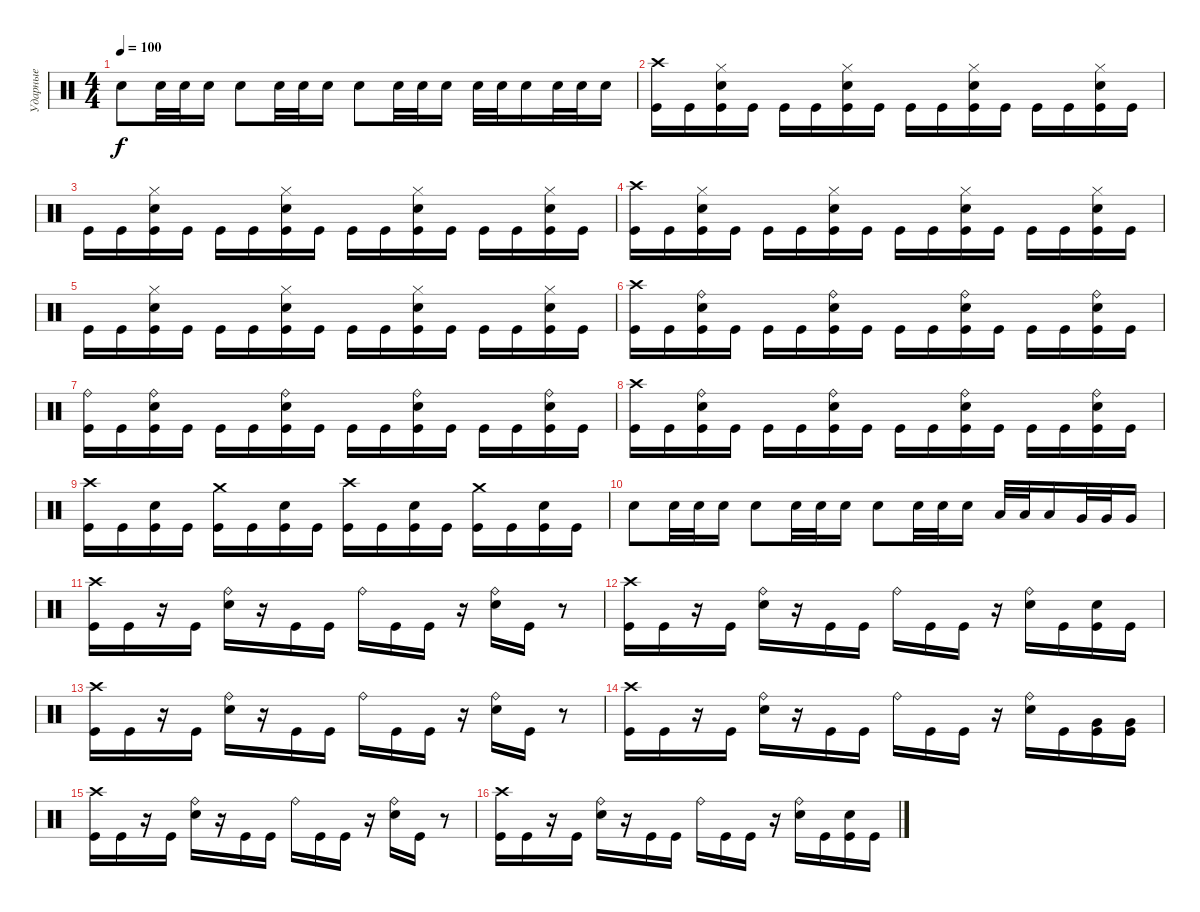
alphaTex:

\track ("Ударные" "Ударные") {instrument percussion}
\staff {score}
\articulation defaults
\ts (4 4)
\tempo 100
\clef neutral
\ks c "Electric Snare (hit)".8{dy f} "Electric Snare (hit)".32 "Electric Snare (hit)".32 "Electric Snare (hit)".16 "Electric Snare (hit)".8 "Electric Snare (hit)".32 "Electric Snare (hit)".32 "Electric Snare (hit)".16 "Electric Snare (hit)".8 "Electric Snare (hit)".32 "Electric Snare (hit)".32 "Electric Snare (hit)".16 "Electric Snare (hit)".32 "Electric Snare (hit)".32 "Electric Snare (hit)".16 "Electric Snare (hit)".32 "Electric Snare (hit)".32 "Electric Snare (hit)".16
|
("Crash high (hit)" "Kick (hit)").16 "Kick (hit)".16 ("Hi-Hat (closed)" "Electric Snare (hit)" "Kick (hit)").16 "Kick (hit)".16 "Kick (hit)".16 "Kick (hit)".16 ("Hi-Hat (closed)" "Electric Snare (hit)" "Kick (hit)").16 "Kick (hit)".16 "Kick (hit)".16 "Kick (hit)".16 ("Hi-Hat (closed)" "Electric Snare (hit)" "Kick (hit)").16 "Kick (hit)".16 "Kick (hit)".16 "Kick (hit)".16 ("Hi-Hat (closed)" "Electric Snare (hit)" "Kick (hit)").16 "Kick (hit)".16 |
"Kick (hit)".16 "Kick (hit)".16 ("Hi-Hat (closed)" "Electric Snare (hit)" "Kick (hit)").16 "Kick (hit)".16 "Kick (hit)".16 "Kick (hit)".16 ("Hi-Hat (closed)" "Electric Snare (hit)" "Kick (hit)").16 "Kick (hit)".16 "Kick (hit)".16 "Kick (hit)".16 ("Hi-Hat (closed)" "Electric Snare (hit)" "Kick (hit)").16 "Kick (hit)".16 "Kick (hit)".16 "Kick (hit)".16 ("Hi-Hat (closed)" "Electric Snare (hit)" "Kick (hit)").16 "Kick (hit)".16 |
("Crash high (hit)" "Kick (hit)").16 "Kick (hit)".16 ("Hi-Hat (closed)" "Electric Snare (hit)" "Kick (hit)").16 "Kick (hit)".16 "Kick (hit)".16 "Kick (hit)".16 ("Hi-Hat (closed)" "Electric Snare (hit)" "Kick (hit)").16 "Kick (hit)".16 "Kick (hit)".16 "Kick (hit)".16 ("Hi-Hat (closed)" "Electric Snare (hit)" "Kick (hit)").16 "Kick (hit)".16 "Kick (hit)".16 "Kick (hit)".16 ("Hi-Hat (closed)" "Electric Snare (hit)" "Kick (hit)").16 "Kick (hit)".16 |
"Kick (hit)".16 "Kick (hit)".16 ("Hi-Hat (closed)" "Electric Snare (hit)" "Kick (hit)").16 "Kick (hit)".16 "Kick (hit)".16 "Kick (hit)".16 ("Hi-Hat (closed)" "Electric Snare (hit)" "Kick (hit)").16 "Kick (hit)".16 "Kick (hit)".16 "Kick (hit)".16 ("Hi-Hat (closed)" "Electric Snare (hit)" "Kick (hit)").16 "Kick (hit)".16 "Kick (hit)".16 "Kick (hit)".16 ("Hi-Hat (closed)" "Electric Snare (hit)" "Kick (hit)").16 "Kick (hit)".16 |
("Crash high (hit)" "Kick (hit)").16 "Kick (hit)".16 ("Ride (bell)" "Electric Snare (hit)" "Kick (hit)").16 "Kick (hit)".16 "Kick (hit)".16 "Kick (hit)".16 ("Ride (bell)" "Electric Snare (hit)" "Kick (hit)").16 "Kick (hit)".16 "Kick (hit)".16 "Kick (hit)".16 ("Ride (bell)" "Electric Snare (hit)" "Kick (hit)").16 "Kick (hit)".16 "Kick (hit)".16 "Kick (hit)".16 ("Ride (bell)" "Electric Snare (hit)" "Kick (hit)").16 "Kick (hit)".16 |
("Ride (bell)" "Kick (hit)").16 "Kick (hit)".16 ("Ride (bell)" "Electric Snare (hit)" "Kick (hit)").16 "Kick (hit)".16 "Kick (hit)".16 "Kick (hit)".16 ("Ride (bell)" "Electric Snare (hit)" "Kick (hit)").16 "Kick (hit)".16 "Kick (hit)".16 "Kick (hit)".16 ("Ride (bell)" "Electric Snare (hit)" "Kick (hit)").16 "Kick (hit)".16 "Kick (hit)".16 "Kick (hit)".16 ("Ride (bell)" "Electric Snare (hit)" "Kick (hit)").16 "Kick (hit)".16 |
("Crash high (hit)" "Kick (hit)").16 "Kick (hit)".16 ("Ride (bell)" "Electric Snare (hit)" "Kick (hit)").16 "Kick (hit)".16 "Kick (hit)".16 "Kick (hit)".16 ("Ride (bell)" "Electric Snare (hit)" "Kick (hit)").16 "Kick (hit)".16 "Kick (hit)".16 "Kick (hit)".16 ("Ride (bell)" "Electric Snare (hit)" "Kick (hit)").16 "Kick (hit)".16 "Kick (hit)".16 "Kick (hit)".16 ("Ride (bell)" "Electric Snare (hit)" "Kick (hit)").16 "Kick (hit)".16 |
("Crash high (hit)" "Kick (hit)").16 "Kick (hit)".16 ("Electric Snare (hit)" "Kick (hit)").16 "Kick (hit)".16 ("Crash medium (hit)" "Kick (hit)").16 "Kick (hit)".16 ("Electric Snare (hit)" "Kick (hit)").16 "Kick (hit)".16 ("Crash high (hit)" "Kick (hit)").16 "Kick (hit)".16 ("Electric Snare (hit)" "Kick (hit)").16 "Kick (hit)".16 ("Crash medium (hit)" "Kick (hit)").16 "Kick (hit)".16 ("Electric Snare (hit)" "Kick (hit)").16 "Kick (hit)".16 |
"Electric Snare (hit)".8 "Electric Snare (hit)".32 "Electric Snare (hit)".32 "Electric Snare (hit)".16 "Electric Snare (hit)".8 "Electric Snare (hit)".32 "Electric Snare (hit)".32 "Electric Snare (hit)".16 "Electric Snare (hit)".8 "Electric Snare (hit)".32 "Electric Snare (hit)".32 "Electric Snare (hit)".16 "Low Tom (hit)".32 "Low Tom (hit)".32 "Low Tom (hit)".16 "Very Low Tom (hit)".32 "Very Low Tom (hit)".32 "Very Low Tom (hit)".16 |
("Crash high (hit)" "Kick (hit)").16 "Kick (hit)".16 r.16 "Kick (hit)".16 ("Ride (bell)" "Electric Snare (hit)").16 r.16 "Kick (hit)".16 "Kick (hit)".16 "Ride (bell)".16 "Kick (hit)".16 "Kick (hit)".16 r.16 ("Ride (bell)" "Electric Snare (hit)").16 "Kick (hit)".16 r.8 |
("Crash high (hit)" "Kick (hit)").16 "Kick (hit)".16 r.16 "Kick (hit)".16 ("Ride (bell)" "Electric Snare (hit)").16 r.16 "Kick (hit)".16 "Kick (hit)".16 "Ride (bell)".16 "Kick (hit)".16 "Kick (hit)".16 r.16 ("Ride (bell)" "Electric Snare (hit)").16 "Kick (hit)".16 ("Electric Snare (hit)" "Kick (hit)").16 "Kick (hit)".16 |
("Crash high (hit)" "Kick (hit)").16 "Kick (hit)".16 r.16 "Kick (hit)".16 ("Ride (bell)" "Electric Snare (hit)").16 r.16 "Kick (hit)".16 "Kick (hit)".16 "Ride (bell)".16 "Kick (hit)".16 "Kick (hit)".16 r.16 ("Ride (bell)" "Electric Snare (hit)").16 "Kick (hit)".16 r.8 |
("Crash high (hit)" "Kick (hit)").16 "Kick (hit)".16 r.16 "Kick (hit)".16 ("Ride (bell)" "Electric Snare (hit)").16 r.16 "Kick (hit)".16 "Kick (hit)".16 "Ride (bell)".16 "Kick (hit)".16 "Kick (hit)".16 r.16 ("Ride (bell)" "Electric Snare (hit)").16 "Kick (hit)".16 ("Very Low Tom (hit)" "Kick (hit)").16 ("Very Low Tom (hit)" "Kick (hit)").16 |
("Crash high (hit)" "Kick (hit)").16 "Kick (hit)".16 r.16 "Kick (hit)".16 ("Ride (bell)" "Electric Snare (hit)").16 r.16 "Kick (hit)".16 "Kick (hit)".16 "Ride (bell)".16 "Kick (hit)".16 "Kick (hit)".16 r.16 ("Ride (bell)" "Electric Snare (hit)").16 "Kick (hit)".16 r.8 |
("Crash high (hit)" "Kick (hit)").16 "Kick (hit)".16 r.16 "Kick (hit)".16 ("Ride (bell)" "Electric Snare (hit)").16 r.16 "Kick (hit)".16 "Kick (hit)".16 "Ride (bell)".16 "Kick (hit)".16 "Kick (hit)".16 r.16 ("Ride (bell)" "Electric Snare (hit)").16 "Kick (hit)".16 ("Electric Snare (hit)" "Kick (hit)").16 "Kick (hit)".16
